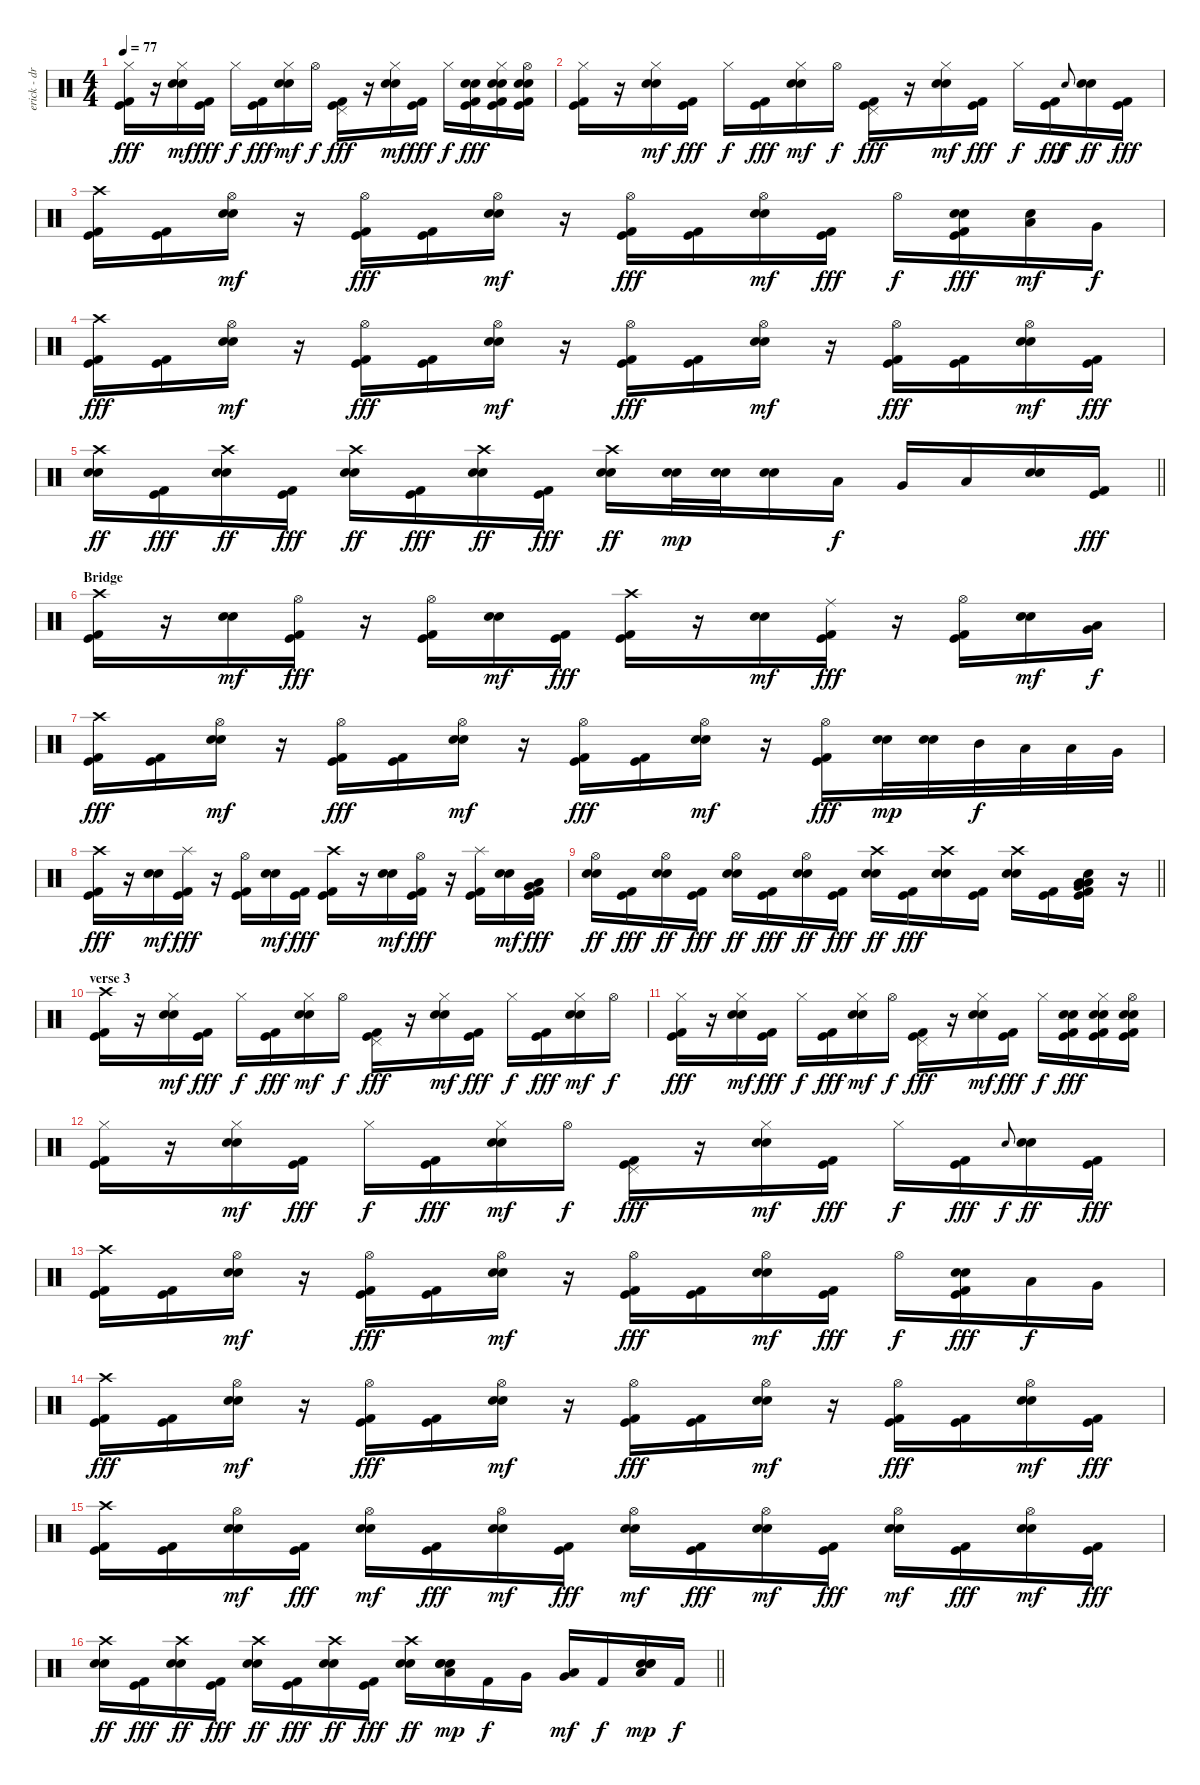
\track ("erick - drum" "erick - dr") {instrument percussion}
\staff {score}
\articulation defaults
\ts (4 4)
\tempo 77
\clef neutral
\ks c
("Hi-Hat (closed)" "Kick (hit) 2" "Kick (hit)").16{dy fff} r.16 ("Hi-Hat (closed)" "Snare (hit) 2" "Electric Snare (hit)").16{dy mf} ("Kick (hit) 2" "Kick (hit)").16{dy fff} "Hi-Hat (closed)".16{dy f} ("Kick (hit) 2" "Kick (hit)").16{dy fff} ("Hi-Hat (closed)" "Snare (hit) 2" "Electric Snare (hit)").16{dy mf} "Hi-Hat (open)".16{dy f} ("Pedal Hi-Hat (hit)" "Kick (hit) 2" "Kick (hit)").16{dy fff} r.16 ("Hi-Hat (closed)" "Snare (hit) 2" "Electric Snare (hit)").16{dy mf} ("Kick (hit) 2" "Kick (hit)").16{dy fff} "Hi-Hat (closed)".16{dy f} ("Snare (hit) 2" "Electric Snare (hit)" "Kick (hit) 2" "Kick (hit)").16{dy fff} ("Hi-Hat (closed)" "Snare (hit) 2" "Electric Snare (hit)" "Kick (hit) 2" "Kick (hit)").16 ("Hi-Hat (open)" "Snare (hit) 2" "Electric Snare (hit)" "Kick (hit) 2" "Kick (hit)").16 |
("Hi-Hat (closed)" "Kick (hit) 2" "Kick (hit)").16 r.16 ("Hi-Hat (closed)" "Snare (hit) 2" "Electric Snare (hit)").16{dy mf} ("Kick (hit) 2" "Kick (hit)").16{dy fff} "Hi-Hat (closed)".16{dy f} ("Kick (hit) 2" "Kick (hit)").16{dy fff} ("Hi-Hat (closed)" "Snare (hit) 2" "Electric Snare (hit)").16{dy mf} "Hi-Hat (open)".16{dy f} ("Pedal Hi-Hat (hit)" "Kick (hit) 2" "Kick (hit)").16{dy fff} r.16 ("Hi-Hat (closed)" "Snare (hit) 2" "Electric Snare (hit)").16{dy mf} ("Kick (hit) 2" "Kick (hit)").16{dy fff} "Hi-Hat (closed)".16{dy f} ("Kick (hit) 2" "Kick (hit)").16{dy fff} "Electric Snare (hit)"{h}.8{gr onbeat dy f} ("Snare (hit) 2" "Electric Snare (hit)").16{dy ff} ("Kick (hit) 2" "Kick (hit)").16{dy fff} |
("Crash high (hit)" "Kick (hit) 2" "Kick (hit)").16 ("Kick (hit) 2" "Kick (hit)").16 ("Hi-Hat (open)" "Snare (hit) 2" "Electric Snare (hit)").16{dy mf} r.16 ("Hi-Hat (open)" "Kick (hit) 2" "Kick (hit)").16{dy fff} ("Kick (hit) 2" "Kick (hit)").16 ("Hi-Hat (open)" "Snare (hit) 2" "Electric Snare (hit)").16{dy mf} r.16 ("Hi-Hat (open)" "Kick (hit) 2" "Kick (hit)").16{dy fff} ("Kick (hit) 2" "Kick (hit)").16 ("Hi-Hat (open)" "Snare (hit) 2" "Electric Snare (hit)").16{dy mf} ("Kick (hit) 2" "Kick (hit)").16{dy fff} "Hi-Hat (open)".16{dy f} ("Snare (hit) 2" "Electric Snare (hit)" "Kick (hit) 2" "Kick (hit)").16{dy fff} ("Electric Snare (hit)" "Low Tom (hit)").16{dy mf} "Very Low Tom (hit)".16{dy f} |
("Crash high (hit)" "Kick (hit) 2" "Kick (hit)").16{dy fff} ("Kick (hit) 2" "Kick (hit)").16 ("Hi-Hat (open)" "Snare (hit) 2" "Electric Snare (hit)").16{dy mf} r.16 ("Hi-Hat (open)" "Kick (hit) 2" "Kick (hit)").16{dy fff} ("Kick (hit) 2" "Kick (hit)").16 ("Hi-Hat (open)" "Snare (hit) 2" "Electric Snare (hit)").16{dy mf} r.16 ("Hi-Hat (open)" "Kick (hit) 2" "Kick (hit)").16{dy fff} ("Kick (hit) 2" "Kick (hit)").16 ("Hi-Hat (open)" "Snare (hit) 2" "Electric Snare (hit)").16{dy mf} r.16 ("Hi-Hat (open)" "Kick (hit) 2" "Kick (hit)").16{dy fff} ("Kick (hit) 2" "Kick (hit)").16 ("Hi-Hat (open)" "Snare (hit) 2" "Electric Snare (hit)").16{dy mf} ("Kick (hit) 2" "Kick (hit)").16{dy fff} |
\barLineRight lightlight
("Crash high (hit)" "Snare (hit) 2" "Electric Snare (hit)").16{dy ff} ("Kick (hit) 2" "Kick (hit)").16{dy fff} ("Crash high (hit)" "Snare (hit) 2" "Electric Snare (hit)").16{dy ff} ("Kick (hit) 2" "Kick (hit)").16{dy fff} ("Crash high (hit)" "Snare (hit) 2" "Electric Snare (hit)").16{dy ff} ("Kick (hit) 2" "Kick (hit)").16{dy fff} ("Crash high (hit)" "Snare (hit) 2" "Electric Snare (hit)").16{dy ff} ("Kick (hit) 2" "Kick (hit)").16{dy fff} ("Crash high (hit)" "Snare (hit) 2" "Electric Snare (hit)").16{dy ff} ("Snare (hit) 2" "Electric Snare (hit)").32{dy mp} ("Snare (hit) 2" "Electric Snare (hit)").32 ("Snare (hit) 2" "Electric Snare (hit)").16 "Low Tom (hit)".16{dy f} "Very Low Tom (hit)".16 "Low Floor Tom (hit)".16 ("Electric Snare (hit)" "Electric Snare (hit)").16{bd 60} ("Kick (hit) 2" "Kick (hit)").16{dy fff} |
\section ("" "Bridge")
("Crash high (hit)" "Kick (hit) 2" "Kick (hit)").16 r.16 ("Snare (hit) 2" "Electric Snare (hit)").16{dy mf} ("Hi-Hat (open)" "Kick (hit) 2" "Kick (hit)").16{dy fff} r.16 ("Hi-Hat (open)" "Kick (hit) 2" "Kick (hit)").16 ("Snare (hit) 2" "Electric Snare (hit)").16{dy mf} ("Kick (hit) 2" "Kick (hit)").16{dy fff} ("Crash high (hit)" "Kick (hit) 2" "Kick (hit)").16 r.16 ("Snare (hit) 2" "Electric Snare (hit)").16{dy mf} ("Ride (middle)" "Kick (hit) 2" "Kick (hit)").16{dy fff} r.16 ("Hi-Hat (open)" "Kick (hit) 2" "Kick (hit)").16 ("Snare (hit) 2" "Electric Snare (hit)").16{dy mf} ("Low Tom (hit)" "Very Low Tom (hit)").16{dy f} |
("Crash high (hit)" "Kick (hit) 2" "Kick (hit)").16{dy fff} ("Kick (hit) 2" "Kick (hit)").16 ("Hi-Hat (open)" "Snare (hit) 2" "Electric Snare (hit)").16{dy mf} r.16 ("Hi-Hat (open)" "Kick (hit) 2" "Kick (hit)").16{dy fff} ("Kick (hit) 2" "Kick (hit)").16 ("Hi-Hat (open)" "Snare (hit) 2" "Electric Snare (hit)").16{dy mf} r.16 ("Hi-Hat (open)" "Kick (hit) 2" "Kick (hit)").16{dy fff} ("Kick (hit) 2" "Kick (hit)").16 ("Hi-Hat (open)" "Snare (hit) 2" "Electric Snare (hit)").16{dy mf} r.16 ("Hi-Hat (open)" "Kick (hit) 2" "Kick (hit)").16{dy fff} ("Snare (hit) 2" "Electric Snare (hit)").32{dy mp} ("Snare (hit) 2" "Electric Snare (hit)").32 "Mid Tom (hit)".32{dy f} "Low Tom (hit)".32 "Low Tom (hit)".32 "Very Low Tom (hit)".32 |
("Crash high (hit)" "Kick (hit) 2" "Kick (hit)").16{dy fff} r.16 ("Snare (hit) 2" "Electric Snare (hit)").16{dy mf} ("Splash (hit)" "Kick (hit) 2" "Kick (hit)").16{dy fff} r.16 ("Hi-Hat (open)" "Kick (hit) 2" "Kick (hit)").16 ("Snare (hit) 2" "Electric Snare (hit)").16{dy mf} ("Kick (hit) 2" "Kick (hit)").16{dy fff} ("Crash high (hit)" "Kick (hit) 2" "Kick (hit)").16 r.16 ("Snare (hit) 2" "Electric Snare (hit)").16{dy mf} ("Hi-Hat (open)" "Kick (hit) 2" "Kick (hit)").16{dy fff} r.16 ("Splash (hit)" "Kick (hit) 2" "Kick (hit)").16 ("Snare (hit) 2" "Electric Snare (hit)").16{dy mf} ("Low Tom (hit)" "Very Low Tom (hit)" "Kick (hit) 2" "Kick (hit)").16{dy fff} |
\barLineRight lightlight
("Hi-Hat (open)" "Snare (hit) 2" "Electric Snare (hit)").16{dy ff} ("Kick (hit) 2" "Kick (hit)").16{dy fff} ("Hi-Hat (open)" "Snare (hit) 2" "Electric Snare (hit)").16{dy ff} ("Kick (hit) 2" "Kick (hit)").16{dy fff} ("Hi-Hat (open)" "Snare (hit) 2" "Electric Snare (hit)").16{dy ff} ("Kick (hit) 2" "Kick (hit)").16{dy fff} ("Hi-Hat (open)" "Snare (hit) 2" "Electric Snare (hit)").16{dy ff} ("Kick (hit) 2" "Kick (hit)").16{dy fff} ("Crash high (hit)" "Snare (hit) 2" "Electric Snare (hit)").16{dy ff} ("Kick (hit) 2" "Kick (hit)").16{dy fff} ("Crash high (hit)" "Snare (hit) 2" "Electric Snare (hit)").16 ("Kick (hit) 2" "Kick (hit)").16 ("Crash high (hit)" "Snare (hit) 2" "Electric Snare (hit)").16 ("Kick (hit) 2" "Kick (hit)").16 ("Electric Snare (hit)" "Low Floor Tom (hit)" "Very Low Tom (hit)" "Low Floor Tom (hit)" "Kick (hit) 2" "Kick (hit)").16 r.16 |
\section ("" "verse 3")
("Crash high (hit)" "Kick (hit) 2" "Kick (hit)").16 r.16 ("Hi-Hat (closed)" "Snare (hit) 2" "Electric Snare (hit)").16{dy mf} ("Kick (hit) 2" "Kick (hit)").16{dy fff} "Hi-Hat (closed)".16{dy f} ("Kick (hit) 2" "Kick (hit)").16{dy fff} ("Hi-Hat (closed)" "Snare (hit) 2" "Electric Snare (hit)").16{dy mf} "Hi-Hat (open)".16{dy f} ("Pedal Hi-Hat (hit)" "Kick (hit) 2" "Kick (hit)").16{dy fff} r.16 ("Hi-Hat (closed)" "Snare (hit) 2" "Electric Snare (hit)").16{dy mf} ("Kick (hit) 2" "Kick (hit)").16{dy fff} "Hi-Hat (closed)".16{dy f} ("Kick (hit) 2" "Kick (hit)").16{dy fff} ("Hi-Hat (closed)" "Snare (hit) 2" "Electric Snare (hit)").16{dy mf} "Hi-Hat (open)".16{dy f} |
("Hi-Hat (closed)" "Kick (hit) 2" "Kick (hit)").16{dy fff} r.16 ("Hi-Hat (closed)" "Snare (hit) 2" "Electric Snare (hit)").16{dy mf} ("Kick (hit) 2" "Kick (hit)").16{dy fff} "Hi-Hat (closed)".16{dy f} ("Kick (hit) 2" "Kick (hit)").16{dy fff} ("Hi-Hat (closed)" "Snare (hit) 2" "Electric Snare (hit)").16{dy mf} "Hi-Hat (open)".16{dy f} ("Pedal Hi-Hat (hit)" "Kick (hit) 2" "Kick (hit)").16{dy fff} r.16 ("Hi-Hat (closed)" "Snare (hit) 2" "Electric Snare (hit)").16{dy mf} ("Kick (hit) 2" "Kick (hit)").16{dy fff} "Hi-Hat (closed)".16{dy f} ("Snare (hit) 2" "Electric Snare (hit)" "Kick (hit) 2" "Kick (hit)").16{dy fff} ("Hi-Hat (closed)" "Snare (hit) 2" "Electric Snare (hit)" "Kick (hit) 2" "Kick (hit)").16 ("Hi-Hat (open)" "Snare (hit) 2" "Electric Snare (hit)" "Kick (hit) 2" "Kick (hit)").16 |
("Hi-Hat (closed)" "Kick (hit) 2" "Kick (hit)").16 r.16 ("Hi-Hat (closed)" "Snare (hit) 2" "Electric Snare (hit)").16{dy mf} ("Kick (hit) 2" "Kick (hit)").16{dy fff} "Hi-Hat (closed)".16{dy f} ("Kick (hit) 2" "Kick (hit)").16{dy fff} ("Hi-Hat (closed)" "Snare (hit) 2" "Electric Snare (hit)").16{dy mf} "Hi-Hat (open)".16{dy f} ("Pedal Hi-Hat (hit)" "Kick (hit) 2" "Kick (hit)").16{dy fff} r.16 ("Hi-Hat (closed)" "Snare (hit) 2" "Electric Snare (hit)").16{dy mf} ("Kick (hit) 2" "Kick (hit)").16{dy fff} "Hi-Hat (closed)".16{dy f} ("Kick (hit) 2" "Kick (hit)").16{dy fff} "Electric Snare (hit)"{h}.8{gr onbeat dy f} ("Snare (hit) 2" "Electric Snare (hit)").16{dy ff} ("Kick (hit) 2" "Kick (hit)").16{dy fff} |
("Crash high (hit)" "Kick (hit) 2" "Kick (hit)").16 ("Kick (hit) 2" "Kick (hit)").16 ("Hi-Hat (open)" "Snare (hit) 2" "Electric Snare (hit)").16{dy mf} r.16 ("Hi-Hat (open)" "Kick (hit) 2" "Kick (hit)").16{dy fff} ("Kick (hit) 2" "Kick (hit)").16 ("Hi-Hat (open)" "Snare (hit) 2" "Electric Snare (hit)").16{dy mf} r.16 ("Hi-Hat (open)" "Kick (hit) 2" "Kick (hit)").16{dy fff} ("Kick (hit) 2" "Kick (hit)").16 ("Hi-Hat (open)" "Snare (hit) 2" "Electric Snare (hit)").16{dy mf} ("Kick (hit) 2" "Kick (hit)").16{dy fff} "Hi-Hat (open)".16{dy f} ("Snare (hit) 2" "Electric Snare (hit)" "Kick (hit) 2" "Kick (hit)").16{dy fff} "Low Tom (hit)".16{dy f} "Very Low Tom (hit)".16 |
("Crash high (hit)" "Kick (hit) 2" "Kick (hit)").16{dy fff} ("Kick (hit) 2" "Kick (hit)").16 ("Hi-Hat (open)" "Snare (hit) 2" "Electric Snare (hit)").16{dy mf} r.16 ("Hi-Hat (open)" "Kick (hit) 2" "Kick (hit)").16{dy fff} ("Kick (hit) 2" "Kick (hit)").16 ("Hi-Hat (open)" "Snare (hit) 2" "Electric Snare (hit)").16{dy mf} r.16 ("Hi-Hat (open)" "Kick (hit) 2" "Kick (hit)").16{dy fff} ("Kick (hit) 2" "Kick (hit)").16 ("Hi-Hat (open)" "Snare (hit) 2" "Electric Snare (hit)").16{dy mf} r.16 ("Hi-Hat (open)" "Kick (hit) 2" "Kick (hit)").16{dy fff} ("Kick (hit) 2" "Kick (hit)").16 ("Hi-Hat (open)" "Snare (hit) 2" "Electric Snare (hit)").16{dy mf} ("Kick (hit) 2" "Kick (hit)").16{dy fff} |
("Crash high (hit)" "Kick (hit) 2" "Kick (hit)").16 ("Kick (hit) 2" "Kick (hit)").16 ("Hi-Hat (open)" "Snare (hit) 2" "Electric Snare (hit)").16{dy mf} ("Kick (hit) 2" "Kick (hit)").16{dy fff} ("Hi-Hat (open)" "Snare (hit) 2" "Electric Snare (hit)").16{dy mf} ("Kick (hit) 2" "Kick (hit)").16{dy fff} ("Hi-Hat (open)" "Snare (hit) 2" "Electric Snare (hit)").16{dy mf} ("Kick (hit) 2" "Kick (hit)").16{dy fff} ("Hi-Hat (open)" "Snare (hit) 2" "Electric Snare (hit)").16{dy mf} ("Kick (hit) 2" "Kick (hit)").16{dy fff} ("Hi-Hat (open)" "Snare (hit) 2" "Electric Snare (hit)").16{dy mf} ("Kick (hit) 2" "Kick (hit)").16{dy fff} ("Hi-Hat (open)" "Snare (hit) 2" "Electric Snare (hit)").16{dy mf} ("Kick (hit) 2" "Kick (hit)").16{dy fff} ("Hi-Hat (open)" "Snare (hit) 2" "Electric Snare (hit)").16{dy mf} ("Kick (hit) 2" "Kick (hit)").16{dy fff} |
\barLineRight lightlight
("Crash high (hit)" "Snare (hit) 2" "Electric Snare (hit)").16{dy ff} ("Kick (hit) 2" "Kick (hit)").16{dy fff} ("Crash high (hit)" "Snare (hit) 2" "Electric Snare (hit)").16{dy ff} ("Kick (hit) 2" "Kick (hit)").16{dy fff} ("Crash high (hit)" "Snare (hit) 2" "Electric Snare (hit)").16{dy ff} ("Kick (hit) 2" "Kick (hit)").16{dy fff} ("Crash high (hit)" "Snare (hit) 2" "Electric Snare (hit)").16{dy ff} ("Kick (hit) 2" "Kick (hit)").16{dy fff} ("Crash high (hit)" "Snare (hit) 2" "Electric Snare (hit)").16{dy ff} ("Snare (hit) 2" "Electric Snare (hit)" "Electric Snare (hit)" "Low Tom (hit)").16{dy mp} "Kick (hit) 2".16{dy f} "Very Low Tom (hit)".16 ("Very Low Tom (hit)" "Low Floor Tom (hit)").16{bu 120 dy mf} "Kick (hit) 2".16{dy f} ("Snare (hit) 2" "Electric Snare (hit)" "Electric Snare (hit)" "Low Floor Tom (hit)").16{dy mp} "Kick (hit) 2".16{dy f}
